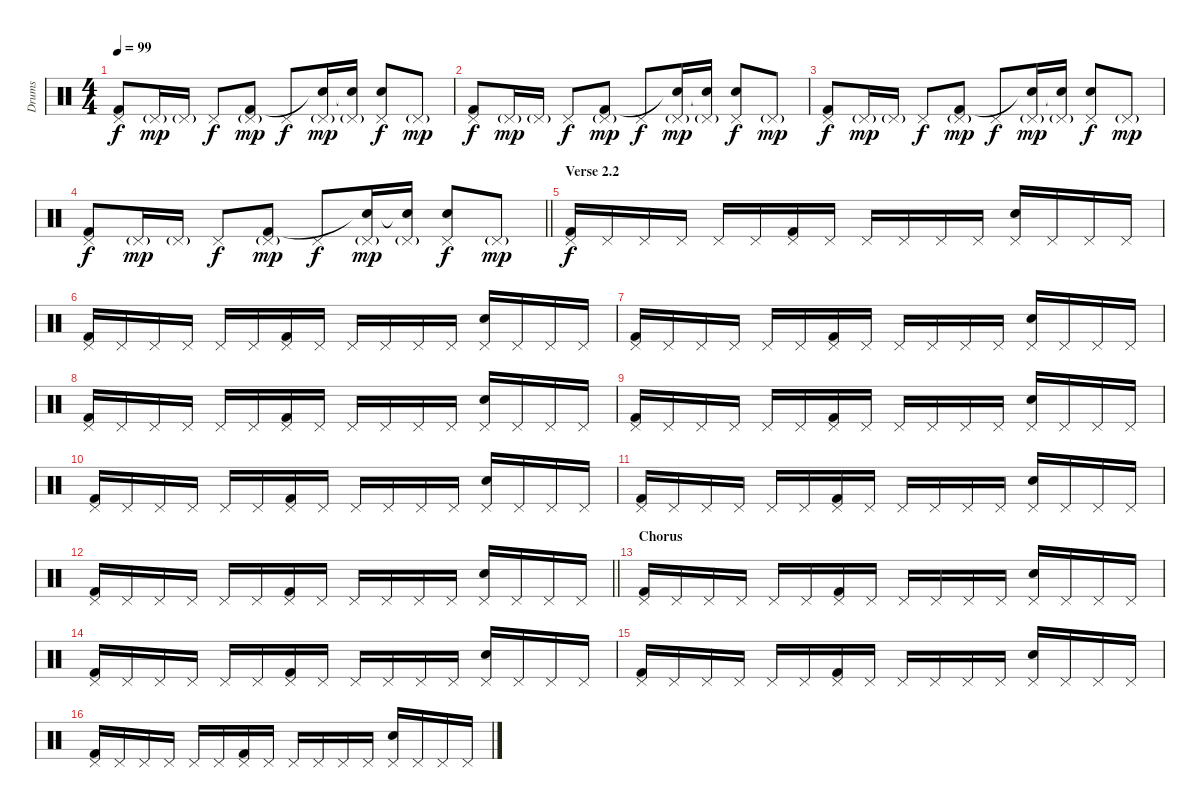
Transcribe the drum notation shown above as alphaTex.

\track ("Drums" "Drums") {instrument percussion}
\staff {score}
\articulation defaults
\ts (4 4)
\tempo 99
\clef neutral
\ks c
("Pedal Hi-Hat (hit)" "Kick (hit) 2").8{dy f} "Pedal Hi-Hat (hit)"{g}.16{dy mp} "Pedal Hi-Hat (hit)"{g}.16 "Pedal Hi-Hat (hit)".8{dy f} ("Pedal Hi-Hat (hit)"{g} "Kick (hit) 2").8{dy mp} "Pedal Hi-Hat (hit)".8{dy f} ("Pedal Hi-Hat (hit)"{g} "Snare (hit)"{t}).16{dy mp} ("Pedal Hi-Hat (hit)"{g} "Snare (hit)"{t}).16 ("Pedal Hi-Hat (hit)" "Snare (hit) 2").8{dy f} "Pedal Hi-Hat (hit)"{g}.8{dy mp} |
("Pedal Hi-Hat (hit)" "Kick (hit) 2").8{dy f} "Pedal Hi-Hat (hit)"{g}.16{dy mp} "Pedal Hi-Hat (hit)"{g}.16 "Pedal Hi-Hat (hit)".8{dy f} ("Pedal Hi-Hat (hit)"{g} "Kick (hit) 2").8{dy mp} "Pedal Hi-Hat (hit)".8{dy f} ("Pedal Hi-Hat (hit)"{g} "Snare (hit)"{t}).16{dy mp} ("Pedal Hi-Hat (hit)"{g} "Snare (hit)"{t}).16 ("Pedal Hi-Hat (hit)" "Snare (hit) 2").8{dy f} "Pedal Hi-Hat (hit)"{g}.8{dy mp} |
("Pedal Hi-Hat (hit)" "Kick (hit) 2").8{dy f} "Pedal Hi-Hat (hit)"{g}.16{dy mp} "Pedal Hi-Hat (hit)"{g}.16 "Pedal Hi-Hat (hit)".8{dy f} ("Pedal Hi-Hat (hit)"{g} "Kick (hit) 2").8{dy mp} "Pedal Hi-Hat (hit)".8{dy f} ("Pedal Hi-Hat (hit)"{g} "Snare (hit)"{t}).16{dy mp} ("Pedal Hi-Hat (hit)"{g} "Snare (hit)"{t}).16 ("Pedal Hi-Hat (hit)" "Snare (hit) 2").8{dy f} "Pedal Hi-Hat (hit)"{g}.8{dy mp} |
\barLineRight lightlight
("Pedal Hi-Hat (hit)" "Kick (hit) 2").8{dy f} "Pedal Hi-Hat (hit)"{g}.16{dy mp} "Pedal Hi-Hat (hit)"{g}.16 "Pedal Hi-Hat (hit)".8{dy f} ("Pedal Hi-Hat (hit)"{g} "Kick (hit) 2").8{dy mp} "Pedal Hi-Hat (hit)".8{dy f} ("Pedal Hi-Hat (hit)"{g} "Snare (hit)"{t}).16{dy mp} ("Pedal Hi-Hat (hit)"{g} "Snare (hit)"{t}).16 ("Pedal Hi-Hat (hit)" "Snare (hit) 2").8{dy f} "Pedal Hi-Hat (hit)"{g}.8{dy mp} |
\section ("" "Verse 2.2")
("Pedal Hi-Hat (hit)" "Kick (hit) 2").16{dy f} "Pedal Hi-Hat (hit)".16 "Pedal Hi-Hat (hit)".16 "Pedal Hi-Hat (hit)".16 "Pedal Hi-Hat (hit)".16 "Pedal Hi-Hat (hit)".16 ("Pedal Hi-Hat (hit)" "Kick (hit) 2").16 "Pedal Hi-Hat (hit)".16 "Pedal Hi-Hat (hit)".16 "Pedal Hi-Hat (hit)".16 "Pedal Hi-Hat (hit)".16 "Pedal Hi-Hat (hit)".16 ("Pedal Hi-Hat (hit)" "Snare (hit) 2").16 "Pedal Hi-Hat (hit)".16 "Pedal Hi-Hat (hit)".16 "Pedal Hi-Hat (hit)".16 |
("Pedal Hi-Hat (hit)" "Kick (hit) 2").16 "Pedal Hi-Hat (hit)".16 "Pedal Hi-Hat (hit)".16 "Pedal Hi-Hat (hit)".16 "Pedal Hi-Hat (hit)".16 "Pedal Hi-Hat (hit)".16 ("Pedal Hi-Hat (hit)" "Kick (hit) 2").16 "Pedal Hi-Hat (hit)".16 "Pedal Hi-Hat (hit)".16 "Pedal Hi-Hat (hit)".16 "Pedal Hi-Hat (hit)".16 "Pedal Hi-Hat (hit)".16 ("Pedal Hi-Hat (hit)" "Snare (hit) 2").16 "Pedal Hi-Hat (hit)".16 "Pedal Hi-Hat (hit)".16 "Pedal Hi-Hat (hit)".16 |
("Pedal Hi-Hat (hit)" "Kick (hit) 2").16 "Pedal Hi-Hat (hit)".16 "Pedal Hi-Hat (hit)".16 "Pedal Hi-Hat (hit)".16 "Pedal Hi-Hat (hit)".16 "Pedal Hi-Hat (hit)".16 ("Pedal Hi-Hat (hit)" "Kick (hit) 2").16 "Pedal Hi-Hat (hit)".16 "Pedal Hi-Hat (hit)".16 "Pedal Hi-Hat (hit)".16 "Pedal Hi-Hat (hit)".16 "Pedal Hi-Hat (hit)".16 ("Pedal Hi-Hat (hit)" "Snare (hit) 2").16 "Pedal Hi-Hat (hit)".16 "Pedal Hi-Hat (hit)".16 "Pedal Hi-Hat (hit)".16 |
("Pedal Hi-Hat (hit)" "Kick (hit) 2").16 "Pedal Hi-Hat (hit)".16 "Pedal Hi-Hat (hit)".16 "Pedal Hi-Hat (hit)".16 "Pedal Hi-Hat (hit)".16 "Pedal Hi-Hat (hit)".16 ("Pedal Hi-Hat (hit)" "Kick (hit) 2").16 "Pedal Hi-Hat (hit)".16 "Pedal Hi-Hat (hit)".16 "Pedal Hi-Hat (hit)".16 "Pedal Hi-Hat (hit)".16 "Pedal Hi-Hat (hit)".16 ("Pedal Hi-Hat (hit)" "Snare (hit) 2").16 "Pedal Hi-Hat (hit)".16 "Pedal Hi-Hat (hit)".16 "Pedal Hi-Hat (hit)".16 |
("Pedal Hi-Hat (hit)" "Kick (hit) 2").16 "Pedal Hi-Hat (hit)".16 "Pedal Hi-Hat (hit)".16 "Pedal Hi-Hat (hit)".16 "Pedal Hi-Hat (hit)".16 "Pedal Hi-Hat (hit)".16 ("Pedal Hi-Hat (hit)" "Kick (hit) 2").16 "Pedal Hi-Hat (hit)".16 "Pedal Hi-Hat (hit)".16 "Pedal Hi-Hat (hit)".16 "Pedal Hi-Hat (hit)".16 "Pedal Hi-Hat (hit)".16 ("Pedal Hi-Hat (hit)" "Snare (hit) 2").16 "Pedal Hi-Hat (hit)".16 "Pedal Hi-Hat (hit)".16 "Pedal Hi-Hat (hit)".16 |
("Pedal Hi-Hat (hit)" "Kick (hit) 2").16 "Pedal Hi-Hat (hit)".16 "Pedal Hi-Hat (hit)".16 "Pedal Hi-Hat (hit)".16 "Pedal Hi-Hat (hit)".16 "Pedal Hi-Hat (hit)".16 ("Pedal Hi-Hat (hit)" "Kick (hit) 2").16 "Pedal Hi-Hat (hit)".16 "Pedal Hi-Hat (hit)".16 "Pedal Hi-Hat (hit)".16 "Pedal Hi-Hat (hit)".16 "Pedal Hi-Hat (hit)".16 ("Pedal Hi-Hat (hit)" "Snare (hit) 2").16 "Pedal Hi-Hat (hit)".16 "Pedal Hi-Hat (hit)".16 "Pedal Hi-Hat (hit)".16 |
("Pedal Hi-Hat (hit)" "Kick (hit) 2").16 "Pedal Hi-Hat (hit)".16 "Pedal Hi-Hat (hit)".16 "Pedal Hi-Hat (hit)".16 "Pedal Hi-Hat (hit)".16 "Pedal Hi-Hat (hit)".16 ("Pedal Hi-Hat (hit)" "Kick (hit) 2").16 "Pedal Hi-Hat (hit)".16 "Pedal Hi-Hat (hit)".16 "Pedal Hi-Hat (hit)".16 "Pedal Hi-Hat (hit)".16 "Pedal Hi-Hat (hit)".16 ("Pedal Hi-Hat (hit)" "Snare (hit) 2").16 "Pedal Hi-Hat (hit)".16 "Pedal Hi-Hat (hit)".16 "Pedal Hi-Hat (hit)".16 |
\barLineRight lightlight
("Pedal Hi-Hat (hit)" "Kick (hit) 2").16 "Pedal Hi-Hat (hit)".16 "Pedal Hi-Hat (hit)".16 "Pedal Hi-Hat (hit)".16 "Pedal Hi-Hat (hit)".16 "Pedal Hi-Hat (hit)".16 ("Pedal Hi-Hat (hit)" "Kick (hit) 2").16 "Pedal Hi-Hat (hit)".16 "Pedal Hi-Hat (hit)".16 "Pedal Hi-Hat (hit)".16 "Pedal Hi-Hat (hit)".16 "Pedal Hi-Hat (hit)".16 ("Pedal Hi-Hat (hit)" "Snare (hit) 2").16 "Pedal Hi-Hat (hit)".16 "Pedal Hi-Hat (hit)".16 "Pedal Hi-Hat (hit)".16 |
\section ("" "Chorus")
("Pedal Hi-Hat (hit)" "Kick (hit) 2").16 "Pedal Hi-Hat (hit)".16 "Pedal Hi-Hat (hit)".16 "Pedal Hi-Hat (hit)".16 "Pedal Hi-Hat (hit)".16 "Pedal Hi-Hat (hit)".16 ("Pedal Hi-Hat (hit)" "Kick (hit) 2").16 "Pedal Hi-Hat (hit)".16 "Pedal Hi-Hat (hit)".16 "Pedal Hi-Hat (hit)".16 "Pedal Hi-Hat (hit)".16 "Pedal Hi-Hat (hit)".16 ("Pedal Hi-Hat (hit)" "Snare (hit) 2").16 "Pedal Hi-Hat (hit)".16 "Pedal Hi-Hat (hit)".16 "Pedal Hi-Hat (hit)".16 |
("Pedal Hi-Hat (hit)" "Kick (hit) 2").16 "Pedal Hi-Hat (hit)".16 "Pedal Hi-Hat (hit)".16 "Pedal Hi-Hat (hit)".16 "Pedal Hi-Hat (hit)".16 "Pedal Hi-Hat (hit)".16 ("Pedal Hi-Hat (hit)" "Kick (hit) 2").16 "Pedal Hi-Hat (hit)".16 "Pedal Hi-Hat (hit)".16 "Pedal Hi-Hat (hit)".16 "Pedal Hi-Hat (hit)".16 "Pedal Hi-Hat (hit)".16 ("Pedal Hi-Hat (hit)" "Snare (hit) 2").16 "Pedal Hi-Hat (hit)".16 "Pedal Hi-Hat (hit)".16 "Pedal Hi-Hat (hit)".16 |
("Pedal Hi-Hat (hit)" "Kick (hit) 2").16 "Pedal Hi-Hat (hit)".16 "Pedal Hi-Hat (hit)".16 "Pedal Hi-Hat (hit)".16 "Pedal Hi-Hat (hit)".16 "Pedal Hi-Hat (hit)".16 ("Pedal Hi-Hat (hit)" "Kick (hit) 2").16 "Pedal Hi-Hat (hit)".16 "Pedal Hi-Hat (hit)".16 "Pedal Hi-Hat (hit)".16 "Pedal Hi-Hat (hit)".16 "Pedal Hi-Hat (hit)".16 ("Pedal Hi-Hat (hit)" "Snare (hit) 2").16 "Pedal Hi-Hat (hit)".16 "Pedal Hi-Hat (hit)".16 "Pedal Hi-Hat (hit)".16 |
("Pedal Hi-Hat (hit)" "Kick (hit) 2").16 "Pedal Hi-Hat (hit)".16 "Pedal Hi-Hat (hit)".16 "Pedal Hi-Hat (hit)".16 "Pedal Hi-Hat (hit)".16 "Pedal Hi-Hat (hit)".16 ("Pedal Hi-Hat (hit)" "Kick (hit) 2").16 "Pedal Hi-Hat (hit)".16 "Pedal Hi-Hat (hit)".16 "Pedal Hi-Hat (hit)".16 "Pedal Hi-Hat (hit)".16 "Pedal Hi-Hat (hit)".16 ("Pedal Hi-Hat (hit)" "Snare (hit) 2").16 "Pedal Hi-Hat (hit)".16 "Pedal Hi-Hat (hit)".16 "Pedal Hi-Hat (hit)".16
